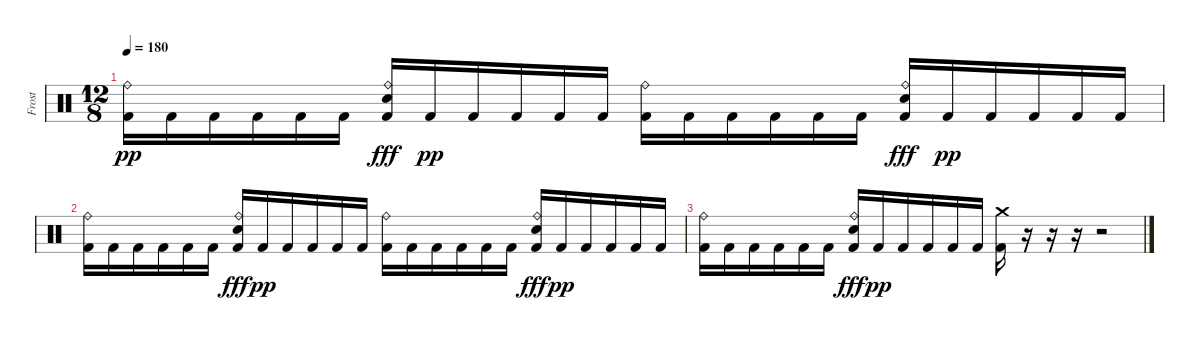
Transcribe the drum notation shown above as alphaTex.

\track ("Frost" "Frost") {instrument percussion}
\staff {score}
\articulation defaults
\ts (12 8)
\tempo 180
\clef neutral
\ks c
("Kick (hit) 2" "Ride (bell)").16{dy pp} "Kick (hit) 2".16 "Kick (hit) 2".16 "Kick (hit) 2".16 "Kick (hit) 2".16 "Kick (hit) 2".16 ("Kick (hit) 2" "Ride (bell)" "Electric Snare (hit)").16{dy fff} "Kick (hit) 2".16{dy pp} "Kick (hit) 2".16 "Kick (hit) 2".16 "Kick (hit) 2".16 "Kick (hit) 2".16 ("Kick (hit) 2" "Ride (bell)").16 "Kick (hit) 2".16 "Kick (hit) 2".16 "Kick (hit) 2".16 "Kick (hit) 2".16 "Kick (hit) 2".16 ("Kick (hit) 2" "Ride (bell)" "Electric Snare (hit)").16{dy fff} "Kick (hit) 2".16{dy pp} "Kick (hit) 2".16 "Kick (hit) 2".16 "Kick (hit) 2".16 "Kick (hit) 2".16 |
("Kick (hit) 2" "Ride (bell)").16 "Kick (hit) 2".16 "Kick (hit) 2".16 "Kick (hit) 2".16 "Kick (hit) 2".16 "Kick (hit) 2".16 ("Kick (hit) 2" "Ride (bell)" "Electric Snare (hit)").16{dy fff} "Kick (hit) 2".16{dy pp} "Kick (hit) 2".16 "Kick (hit) 2".16 "Kick (hit) 2".16 "Kick (hit) 2".16 ("Kick (hit) 2" "Ride (bell)").16 "Kick (hit) 2".16 "Kick (hit) 2".16 "Kick (hit) 2".16 "Kick (hit) 2".16 "Kick (hit) 2".16 ("Kick (hit) 2" "Ride (bell)" "Electric Snare (hit)").16{dy fff} "Kick (hit) 2".16{dy pp} "Kick (hit) 2".16 "Kick (hit) 2".16 "Kick (hit) 2".16 "Kick (hit) 2".16 |
("Kick (hit) 2" "Ride (bell)").16 "Kick (hit) 2".16 "Kick (hit) 2".16 "Kick (hit) 2".16 "Kick (hit) 2".16 "Kick (hit) 2".16 ("Kick (hit) 2" "Ride (bell)" "Electric Snare (hit)").16{dy fff} "Kick (hit) 2".16{dy pp} "Kick (hit) 2".16 "Kick (hit) 2".16 "Kick (hit) 2".16 "Kick (hit) 2".16 ("Kick (hit) 2" "Crash medium (hit)").16 r.16 r.16 r.16 r.2
